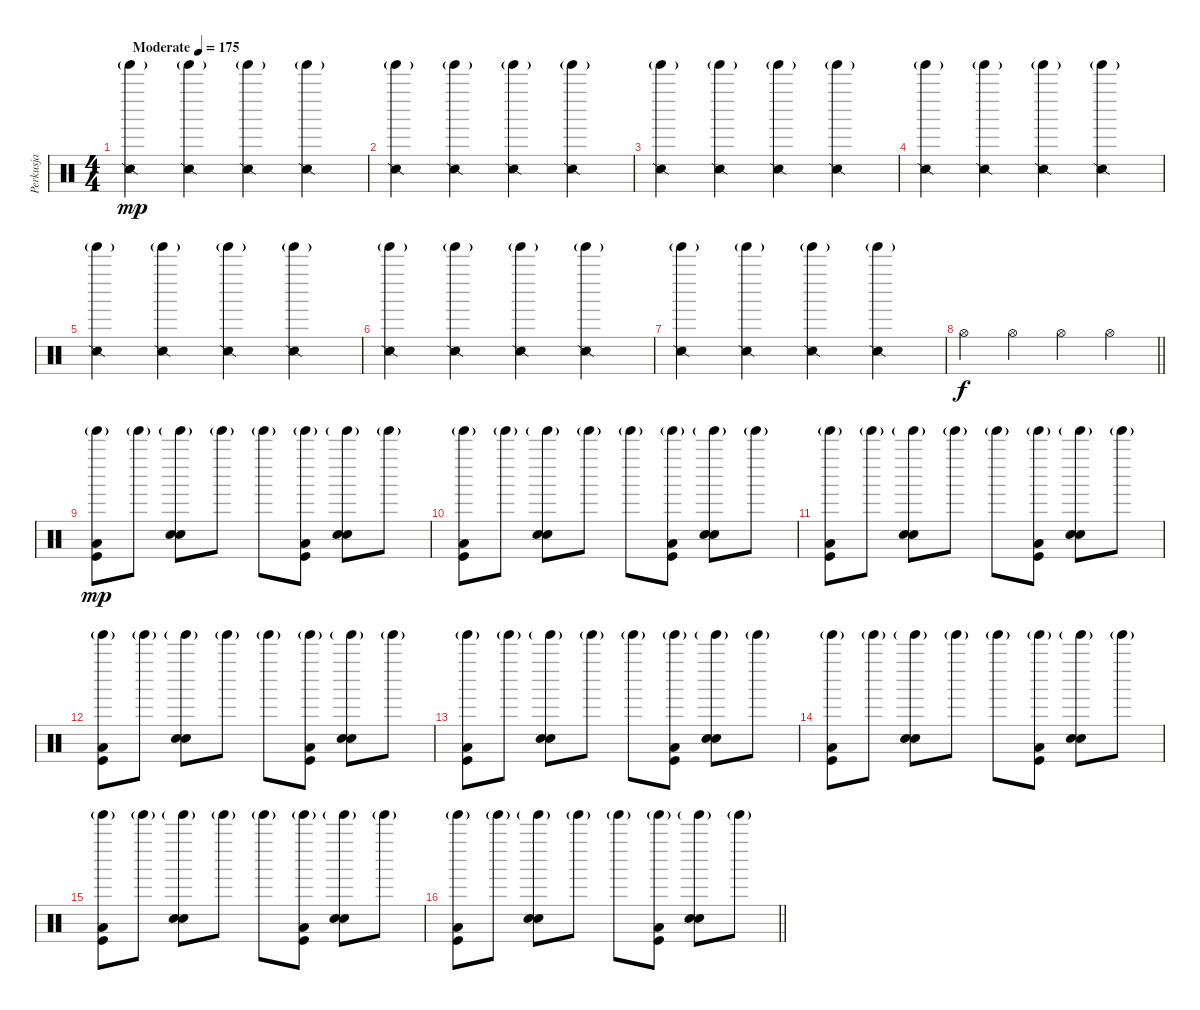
\track ("Perkusja" "Perkusja") {instrument percussion}
\staff {score}
\articulation defaults
\ts (4 4)
\section ("" "")
\tempo (175 "Moderate")
\clef neutral
\ks c
("Tinkle Bell (hit)"{g} "Snare (side stick) 2").4{dy mp} ("Tinkle Bell (hit)"{g} "Snare (side stick) 2").4 ("Tinkle Bell (hit)"{g} "Snare (side stick) 2").4 ("Tinkle Bell (hit)"{g} "Snare (side stick) 2").4 |
("Tinkle Bell (hit)"{g} "Snare (side stick) 2").4 ("Tinkle Bell (hit)"{g} "Snare (side stick) 2").4 ("Tinkle Bell (hit)"{g} "Snare (side stick) 2").4 ("Tinkle Bell (hit)"{g} "Snare (side stick) 2").4 |
("Tinkle Bell (hit)"{g} "Snare (side stick) 2").4 ("Tinkle Bell (hit)"{g} "Snare (side stick) 2").4 ("Tinkle Bell (hit)"{g} "Snare (side stick) 2").4 ("Tinkle Bell (hit)"{g} "Snare (side stick) 2").4 |
("Tinkle Bell (hit)"{g} "Snare (side stick) 2").4 ("Tinkle Bell (hit)"{g} "Snare (side stick) 2").4 ("Tinkle Bell (hit)"{g} "Snare (side stick) 2").4 ("Tinkle Bell (hit)"{g} "Snare (side stick) 2").4 |
("Tinkle Bell (hit)"{g} "Snare (side stick) 2").4 ("Tinkle Bell (hit)"{g} "Snare (side stick) 2").4 ("Tinkle Bell (hit)"{g} "Snare (side stick) 2").4 ("Tinkle Bell (hit)"{g} "Snare (side stick) 2").4 |
("Tinkle Bell (hit)"{g} "Snare (side stick) 2").4 ("Tinkle Bell (hit)"{g} "Snare (side stick) 2").4 ("Tinkle Bell (hit)"{g} "Snare (side stick) 2").4 ("Tinkle Bell (hit)"{g} "Snare (side stick) 2").4 |
("Tinkle Bell (hit)"{g} "Snare (side stick) 2").4 ("Tinkle Bell (hit)"{g} "Snare (side stick) 2").4 ("Tinkle Bell (hit)"{g} "Snare (side stick) 2").4 ("Tinkle Bell (hit)"{g} "Snare (side stick) 2").4 |
\barLineRight lightlight "Hi-Hat (open)".4{dy f} "Hi-Hat (open)".4 "Hi-Hat (open)".4 "Hi-Hat (open)".4
|
\section ("" "")
("Tinkle Bell (hit)"{g} "Low Floor Tom (hit)" "Kick (hit)").8{dy mp} "Tinkle Bell (hit)"{g}.8 ("Tinkle Bell (hit)"{g} "Snare (hit) 2" "Electric Snare (hit)").8 "Tinkle Bell (hit)"{g}.8 "Tinkle Bell (hit)"{g}.8 ("Tinkle Bell (hit)"{g} "Low Floor Tom (hit)" "Kick (hit)").8 ("Tinkle Bell (hit)"{g} "Snare (hit) 2" "Electric Snare (hit)").8 "Tinkle Bell (hit)"{g}.8 |
("Tinkle Bell (hit)"{g} "Low Floor Tom (hit)" "Kick (hit)").8 "Tinkle Bell (hit)"{g}.8 ("Tinkle Bell (hit)"{g} "Snare (hit) 2" "Electric Snare (hit)").8 "Tinkle Bell (hit)"{g}.8 "Tinkle Bell (hit)"{g}.8 ("Tinkle Bell (hit)"{g} "Low Floor Tom (hit)" "Kick (hit)").8 ("Tinkle Bell (hit)"{g} "Snare (hit) 2" "Electric Snare (hit)").8 "Tinkle Bell (hit)"{g}.8 |
("Tinkle Bell (hit)"{g} "Low Floor Tom (hit)" "Kick (hit)").8 "Tinkle Bell (hit)"{g}.8 ("Tinkle Bell (hit)"{g} "Snare (hit) 2" "Electric Snare (hit)").8 "Tinkle Bell (hit)"{g}.8 "Tinkle Bell (hit)"{g}.8 ("Tinkle Bell (hit)"{g} "Low Floor Tom (hit)" "Kick (hit)").8 ("Tinkle Bell (hit)"{g} "Snare (hit) 2" "Electric Snare (hit)").8 "Tinkle Bell (hit)"{g}.8 |
("Tinkle Bell (hit)"{g} "Low Floor Tom (hit)" "Kick (hit)").8 "Tinkle Bell (hit)"{g}.8 ("Tinkle Bell (hit)"{g} "Snare (hit) 2" "Electric Snare (hit)").8 "Tinkle Bell (hit)"{g}.8 "Tinkle Bell (hit)"{g}.8 ("Tinkle Bell (hit)"{g} "Low Floor Tom (hit)" "Kick (hit)").8 ("Tinkle Bell (hit)"{g} "Snare (hit) 2" "Electric Snare (hit)").8 "Tinkle Bell (hit)"{g}.8 |
("Tinkle Bell (hit)"{g} "Low Floor Tom (hit)" "Kick (hit)").8 "Tinkle Bell (hit)"{g}.8 ("Tinkle Bell (hit)"{g} "Snare (hit) 2" "Electric Snare (hit)").8 "Tinkle Bell (hit)"{g}.8 "Tinkle Bell (hit)"{g}.8 ("Tinkle Bell (hit)"{g} "Low Floor Tom (hit)" "Kick (hit)").8 ("Tinkle Bell (hit)"{g} "Snare (hit) 2" "Electric Snare (hit)").8 "Tinkle Bell (hit)"{g}.8 |
("Tinkle Bell (hit)"{g} "Low Floor Tom (hit)" "Kick (hit)").8 "Tinkle Bell (hit)"{g}.8 ("Tinkle Bell (hit)"{g} "Snare (hit) 2" "Electric Snare (hit)").8 "Tinkle Bell (hit)"{g}.8 "Tinkle Bell (hit)"{g}.8 ("Tinkle Bell (hit)"{g} "Low Floor Tom (hit)" "Kick (hit)").8 ("Tinkle Bell (hit)"{g} "Snare (hit) 2" "Electric Snare (hit)").8 "Tinkle Bell (hit)"{g}.8 |
("Tinkle Bell (hit)"{g} "Low Floor Tom (hit)" "Kick (hit)").8 "Tinkle Bell (hit)"{g}.8 ("Tinkle Bell (hit)"{g} "Snare (hit) 2" "Electric Snare (hit)").8 "Tinkle Bell (hit)"{g}.8 "Tinkle Bell (hit)"{g}.8 ("Tinkle Bell (hit)"{g} "Low Floor Tom (hit)" "Kick (hit)").8 ("Tinkle Bell (hit)"{g} "Snare (hit) 2" "Electric Snare (hit)").8 "Tinkle Bell (hit)"{g}.8 |
\barLineRight lightlight
("Tinkle Bell (hit)"{g} "Low Floor Tom (hit)" "Kick (hit)").8 "Tinkle Bell (hit)"{g}.8 ("Tinkle Bell (hit)"{g} "Snare (hit) 2" "Electric Snare (hit)").8 "Tinkle Bell (hit)"{g}.8 "Tinkle Bell (hit)"{g}.8 ("Tinkle Bell (hit)"{g} "Low Floor Tom (hit)" "Kick (hit)").8 ("Tinkle Bell (hit)"{g} "Snare (hit) 2" "Electric Snare (hit)").8 "Tinkle Bell (hit)"{g}.8
